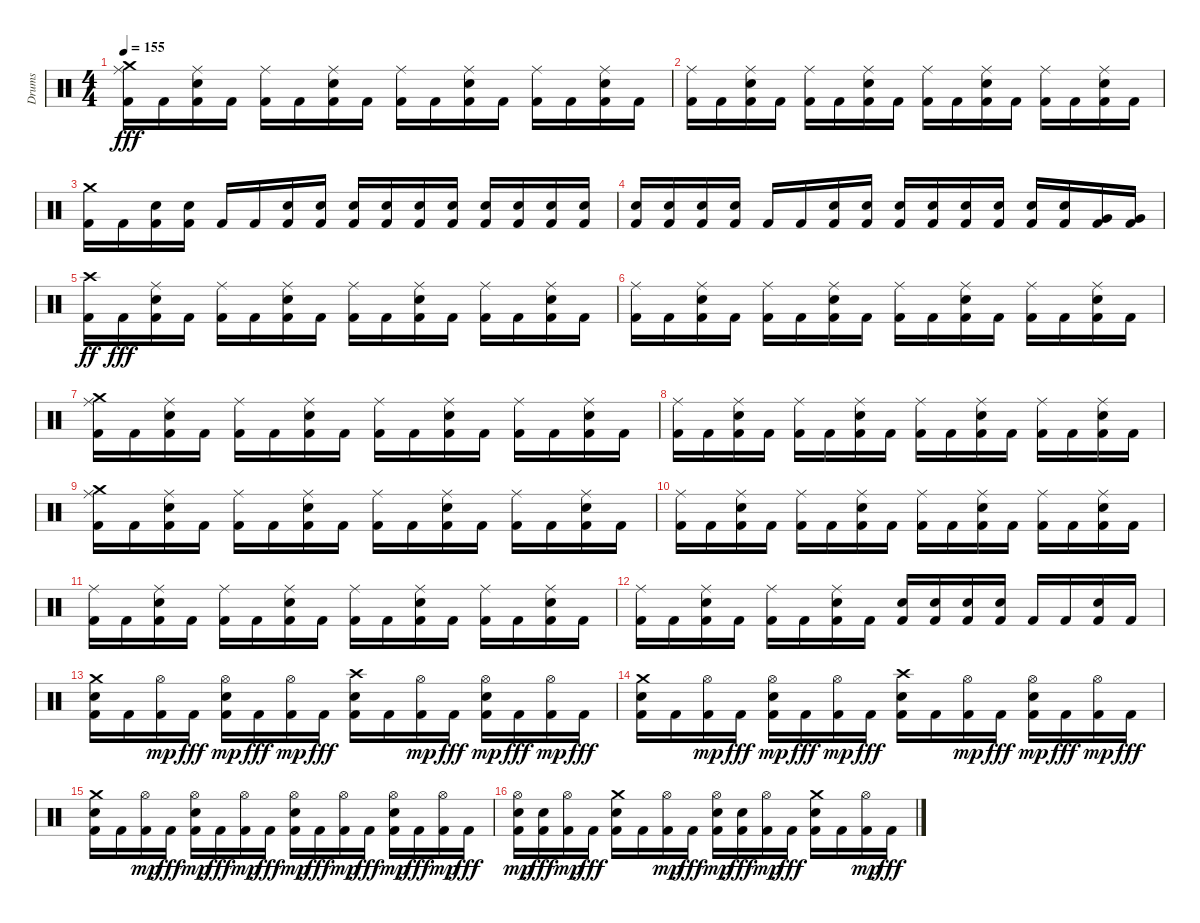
\track ("Drums" "Drums") {instrument percussion}
\staff {score}
\articulation defaults
\ts (4 4)
\tempo 155
\clef neutral
\ks c
("Kick (hit) 2" "Ride (middle)" "Crash medium (hit)").16{dy fff} "Kick (hit) 2".16 ("Kick (hit) 2" "Ride (middle)" "Snare (hit) 2").16 "Kick (hit) 2".16 ("Kick (hit) 2" "Ride (middle)").16 "Kick (hit) 2".16 ("Kick (hit) 2" "Ride (middle)" "Snare (hit) 2").16 "Kick (hit) 2".16 ("Kick (hit) 2" "Ride (middle)").16 "Kick (hit) 2".16 ("Kick (hit) 2" "Ride (middle)" "Snare (hit) 2").16 "Kick (hit) 2".16 ("Kick (hit) 2" "Ride (middle)").16 "Kick (hit) 2".16 ("Kick (hit) 2" "Ride (middle)" "Snare (hit) 2").16 "Kick (hit) 2".16 |
("Kick (hit) 2" "Ride (middle)").16 "Kick (hit) 2".16 ("Kick (hit) 2" "Ride (middle)" "Snare (hit) 2").16 "Kick (hit) 2".16 ("Kick (hit) 2" "Ride (middle)").16 "Kick (hit) 2".16 ("Kick (hit) 2" "Ride (middle)" "Snare (hit) 2").16 "Kick (hit) 2".16 ("Kick (hit) 2" "Ride (middle)").16 "Kick (hit) 2".16 ("Kick (hit) 2" "Ride (middle)" "Snare (hit) 2").16 "Kick (hit) 2".16 ("Kick (hit) 2" "Ride (middle)").16 "Kick (hit) 2".16 ("Kick (hit) 2" "Ride (middle)" "Snare (hit) 2").16 "Kick (hit) 2".16 |
("Kick (hit) 2" "Crash medium (hit)").16 "Kick (hit) 2".16 ("Kick (hit) 2" "Snare (hit) 2").16 ("Kick (hit) 2" "Snare (hit) 2").16 "Kick (hit) 2".16 "Kick (hit) 2".16 ("Kick (hit) 2" "Snare (hit) 2").16 ("Kick (hit) 2" "Snare (hit) 2").16 ("Kick (hit) 2" "Snare (hit) 2").16 ("Kick (hit) 2" "Snare (hit) 2").16 ("Kick (hit) 2" "Snare (hit) 2").16 ("Kick (hit) 2" "Snare (hit) 2").16 ("Kick (hit) 2" "Snare (hit) 2").16 ("Kick (hit) 2" "Snare (hit) 2").16 ("Kick (hit) 2" "Snare (hit) 2").16 ("Kick (hit) 2" "Snare (hit) 2").16 |
("Kick (hit) 2" "Snare (hit) 2").16 ("Kick (hit) 2" "Snare (hit) 2").16 ("Kick (hit) 2" "Snare (hit) 2").16 ("Kick (hit) 2" "Snare (hit) 2").16 "Kick (hit) 2".16 "Kick (hit) 2".16 ("Kick (hit) 2" "Snare (hit) 2").16 ("Kick (hit) 2" "Snare (hit) 2").16 ("Kick (hit) 2" "Snare (hit) 2").16 ("Kick (hit) 2" "Snare (hit) 2").16 ("Kick (hit) 2" "Snare (hit) 2").16 ("Kick (hit) 2" "Snare (hit) 2").16 ("Kick (hit) 2" "Snare (hit) 2").16 ("Kick (hit) 2" "Snare (hit) 2").16 ("Kick (hit) 2" "Very Low Tom (hit)").16 ("Kick (hit) 2" "Very Low Tom (hit)").16 |
("Kick (hit) 2" "Crash high (hit)").16{dy ff} "Kick (hit) 2".16{dy fff} ("Kick (hit) 2" "Ride (middle)" "Snare (hit) 2").16 "Kick (hit) 2".16 ("Kick (hit) 2" "Ride (middle)").16 "Kick (hit) 2".16 ("Kick (hit) 2" "Ride (middle)" "Snare (hit) 2").16 "Kick (hit) 2".16 ("Kick (hit) 2" "Ride (middle)").16 "Kick (hit) 2".16 ("Kick (hit) 2" "Ride (middle)" "Snare (hit) 2").16 "Kick (hit) 2".16 ("Kick (hit) 2" "Ride (middle)").16 "Kick (hit) 2".16 ("Kick (hit) 2" "Ride (middle)" "Snare (hit) 2").16 "Kick (hit) 2".16 |
("Kick (hit) 2" "Ride (middle)").16 "Kick (hit) 2".16 ("Kick (hit) 2" "Ride (middle)" "Snare (hit) 2").16 "Kick (hit) 2".16 ("Kick (hit) 2" "Ride (middle)").16 "Kick (hit) 2".16 ("Kick (hit) 2" "Ride (middle)" "Snare (hit) 2").16 "Kick (hit) 2".16 ("Kick (hit) 2" "Ride (middle)").16 "Kick (hit) 2".16 ("Kick (hit) 2" "Ride (middle)" "Snare (hit) 2").16 "Kick (hit) 2".16 ("Kick (hit) 2" "Ride (middle)").16 "Kick (hit) 2".16 ("Kick (hit) 2" "Ride (middle)" "Snare (hit) 2").16 "Kick (hit) 2".16 |
("Kick (hit) 2" "Ride (middle)" "Crash medium (hit)").16 "Kick (hit) 2".16 ("Kick (hit) 2" "Ride (middle)" "Snare (hit) 2").16 "Kick (hit) 2".16 ("Kick (hit) 2" "Ride (middle)").16 "Kick (hit) 2".16 ("Kick (hit) 2" "Ride (middle)" "Snare (hit) 2").16 "Kick (hit) 2".16 ("Kick (hit) 2" "Ride (middle)").16 "Kick (hit) 2".16 ("Kick (hit) 2" "Ride (middle)" "Snare (hit) 2").16 "Kick (hit) 2".16 ("Kick (hit) 2" "Ride (middle)").16 "Kick (hit) 2".16 ("Kick (hit) 2" "Ride (middle)" "Snare (hit) 2").16 "Kick (hit) 2".16 |
("Kick (hit) 2" "Ride (middle)").16 "Kick (hit) 2".16 ("Kick (hit) 2" "Ride (middle)" "Snare (hit) 2").16 "Kick (hit) 2".16 ("Kick (hit) 2" "Ride (middle)").16 "Kick (hit) 2".16 ("Kick (hit) 2" "Ride (middle)" "Snare (hit) 2").16 "Kick (hit) 2".16 ("Kick (hit) 2" "Ride (middle)").16 "Kick (hit) 2".16 ("Kick (hit) 2" "Ride (middle)" "Snare (hit) 2").16 "Kick (hit) 2".16 ("Kick (hit) 2" "Ride (middle)").16 "Kick (hit) 2".16 ("Kick (hit) 2" "Ride (middle)" "Snare (hit) 2").16 "Kick (hit) 2".16 |
("Kick (hit) 2" "Ride (middle)" "Crash medium (hit)").16 "Kick (hit) 2".16 ("Kick (hit) 2" "Ride (middle)" "Snare (hit) 2").16 "Kick (hit) 2".16 ("Kick (hit) 2" "Ride (middle)").16 "Kick (hit) 2".16 ("Kick (hit) 2" "Ride (middle)" "Snare (hit) 2").16 "Kick (hit) 2".16 ("Kick (hit) 2" "Ride (middle)").16 "Kick (hit) 2".16 ("Kick (hit) 2" "Ride (middle)" "Snare (hit) 2").16 "Kick (hit) 2".16 ("Kick (hit) 2" "Ride (middle)").16 "Kick (hit) 2".16 ("Kick (hit) 2" "Ride (middle)" "Snare (hit) 2").16 "Kick (hit) 2".16 |
("Kick (hit) 2" "Ride (middle)").16 "Kick (hit) 2".16 ("Kick (hit) 2" "Ride (middle)" "Snare (hit) 2").16 "Kick (hit) 2".16 ("Kick (hit) 2" "Ride (middle)").16 "Kick (hit) 2".16 ("Kick (hit) 2" "Ride (middle)" "Snare (hit) 2").16 "Kick (hit) 2".16 ("Kick (hit) 2" "Ride (middle)").16 "Kick (hit) 2".16 ("Kick (hit) 2" "Ride (middle)" "Snare (hit) 2").16 "Kick (hit) 2".16 ("Kick (hit) 2" "Ride (middle)").16 "Kick (hit) 2".16 ("Kick (hit) 2" "Ride (middle)" "Snare (hit) 2").16 "Kick (hit) 2".16 |
("Kick (hit) 2" "Ride (middle)").16 "Kick (hit) 2".16 ("Kick (hit) 2" "Ride (middle)" "Snare (hit) 2").16 "Kick (hit) 2".16 ("Kick (hit) 2" "Ride (middle)").16 "Kick (hit) 2".16 ("Kick (hit) 2" "Ride (middle)" "Snare (hit) 2").16 "Kick (hit) 2".16 ("Kick (hit) 2" "Ride (middle)").16 "Kick (hit) 2".16 ("Kick (hit) 2" "Ride (middle)" "Snare (hit) 2").16 "Kick (hit) 2".16 ("Kick (hit) 2" "Ride (middle)").16 "Kick (hit) 2".16 ("Kick (hit) 2" "Ride (middle)" "Snare (hit) 2").16 "Kick (hit) 2".16 |
("Kick (hit) 2" "Ride (middle)").16 "Kick (hit) 2".16 ("Kick (hit) 2" "Ride (middle)" "Snare (hit) 2").16 "Kick (hit) 2".16 ("Kick (hit) 2" "Ride (middle)").16 "Kick (hit) 2".16 ("Kick (hit) 2" "Ride (middle)" "Snare (hit) 2").16 "Kick (hit) 2".16 ("Kick (hit) 2" "Snare (hit) 2").16 ("Kick (hit) 2" "Snare (hit) 2").16 ("Kick (hit) 2" "Snare (hit) 2").16 ("Kick (hit) 2" "Snare (hit) 2").16 "Kick (hit) 2".16 "Kick (hit) 2".16 ("Kick (hit) 2" "Snare (hit) 2").16 "Kick (hit) 2".16 |
("Kick (hit) 2" "Snare (hit) 2" "Crash medium (hit)").16 "Kick (hit) 2".16 ("Kick (hit) 2" "Hi-Hat (open)").16{dy mp} "Kick (hit) 2".16{dy fff} ("Kick (hit) 2" "Hi-Hat (open)" "Snare (hit) 2").16{dy mp} "Kick (hit) 2".16{dy fff} ("Kick (hit) 2" "Hi-Hat (open)").16{dy mp} "Kick (hit) 2".16{dy fff} ("Kick (hit) 2" "Snare (hit) 2" "Crash high (hit)").16 "Kick (hit) 2".16 ("Kick (hit) 2" "Hi-Hat (open)").16{dy mp} "Kick (hit) 2".16{dy fff} ("Kick (hit) 2" "Hi-Hat (open)" "Snare (hit) 2").16{dy mp} "Kick (hit) 2".16{dy fff} ("Kick (hit) 2" "Hi-Hat (open)").16{dy mp} "Kick (hit) 2".16{dy fff} |
("Kick (hit) 2" "Snare (hit) 2" "Crash medium (hit)").16 "Kick (hit) 2".16 ("Kick (hit) 2" "Hi-Hat (open)").16{dy mp} "Kick (hit) 2".16{dy fff} ("Kick (hit) 2" "Hi-Hat (open)" "Snare (hit) 2").16{dy mp} "Kick (hit) 2".16{dy fff} ("Kick (hit) 2" "Hi-Hat (open)").16{dy mp} "Kick (hit) 2".16{dy fff} ("Kick (hit) 2" "Snare (hit) 2" "Crash high (hit)").16 "Kick (hit) 2".16 ("Kick (hit) 2" "Hi-Hat (open)").16{dy mp} "Kick (hit) 2".16{dy fff} ("Kick (hit) 2" "Hi-Hat (open)" "Snare (hit) 2").16{dy mp} "Kick (hit) 2".16{dy fff} ("Kick (hit) 2" "Hi-Hat (open)").16{dy mp} "Kick (hit) 2".16{dy fff} |
("Kick (hit) 2" "Snare (hit) 2" "Crash medium (hit)").16 "Kick (hit) 2".16 ("Kick (hit) 2" "Hi-Hat (open)").16{dy mp} "Kick (hit) 2".16{dy fff} ("Kick (hit) 2" "Hi-Hat (open)" "Snare (hit) 2").16{dy mp} "Kick (hit) 2".16{dy fff} ("Kick (hit) 2" "Hi-Hat (open)").16{dy mp} "Kick (hit) 2".16{dy fff} ("Kick (hit) 2" "Hi-Hat (open)" "Snare (hit) 2").16{dy mp} "Kick (hit) 2".16{dy fff} ("Kick (hit) 2" "Hi-Hat (open)").16{dy mp} "Kick (hit) 2".16{dy fff} ("Kick (hit) 2" "Hi-Hat (open)" "Snare (hit) 2").16{dy mp} "Kick (hit) 2".16{dy fff} ("Kick (hit) 2" "Hi-Hat (open)").16{dy mp} "Kick (hit) 2".16{dy fff} |
("Kick (hit) 2" "Hi-Hat (open)" "Snare (hit) 2").16{dy mp} ("Kick (hit) 2" "Snare (hit) 2").16{dy fff} ("Kick (hit) 2" "Hi-Hat (open)").16{dy mp} "Kick (hit) 2".16{dy fff} ("Kick (hit) 2" "Snare (hit) 2" "Crash medium (hit)").16 "Kick (hit) 2".16 ("Kick (hit) 2" "Hi-Hat (open)").16{dy mp} "Kick (hit) 2".16{dy fff} ("Kick (hit) 2" "Hi-Hat (open)" "Snare (hit) 2").16{dy mp} ("Kick (hit) 2" "Snare (hit) 2").16{dy fff} ("Kick (hit) 2" "Hi-Hat (open)").16{dy mp} "Kick (hit) 2".16{dy fff} ("Kick (hit) 2" "Snare (hit) 2" "Crash medium (hit)").16 "Kick (hit) 2".16 ("Kick (hit) 2" "Hi-Hat (open)").16{dy mp} "Kick (hit) 2".16{dy fff}
